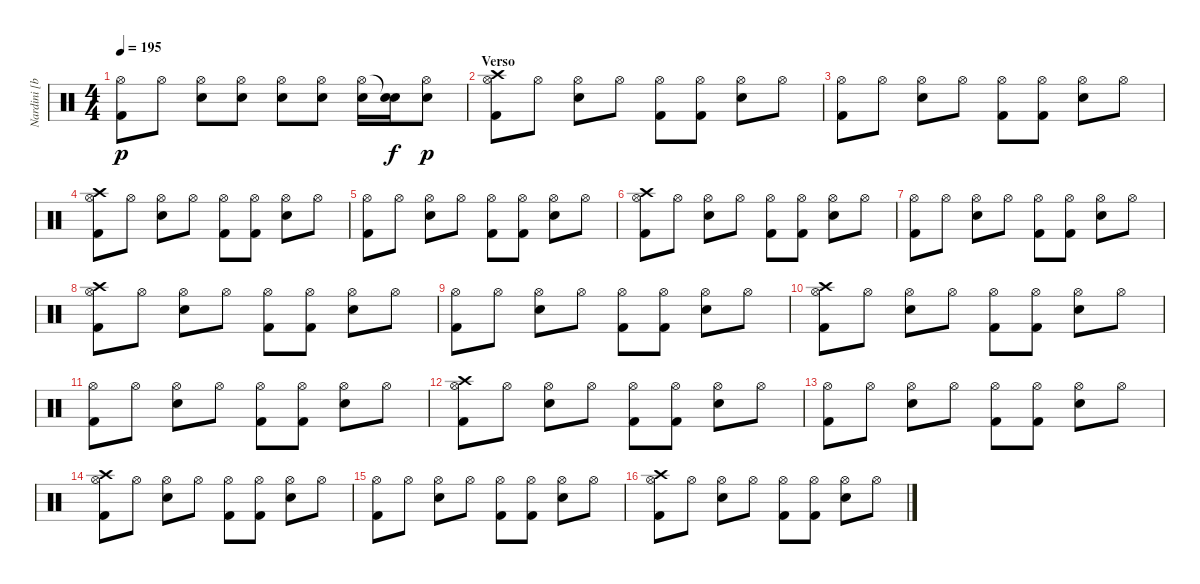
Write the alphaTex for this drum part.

\track ("Nardini [batteria]" "Nardini [b") {instrument percussion}
\staff {score}
\articulation defaults
\ts (4 4)
\tempo 195
\clef neutral
\ks c
("Hi-Hat (open)" "Kick (hit) 2").8{dy p} "Hi-Hat (open)".8 ("Hi-Hat (open)" "Electric Snare (hit)").8 ("Hi-Hat (open)" "Electric Snare (hit)").8 ("Hi-Hat (open)" "Electric Snare (hit)").8 ("Hi-Hat (open)" "Electric Snare (hit)").8 ("Hi-Hat (open)" "Electric Snare (hit)").16 ("Snare (hit)"{t} "Electric Snare (hit)").16{dy f} ("Hi-Hat (open)" "Electric Snare (hit)").8{dy p} |
\section ("" "Verso")
("Crash high (hit)" "Hi-Hat (open)" "Kick (hit) 2").8 "Hi-Hat (open)".8 ("Hi-Hat (open)" "Electric Snare (hit)").8 "Hi-Hat (open)".8 ("Hi-Hat (open)" "Kick (hit) 2").8 ("Hi-Hat (open)" "Kick (hit) 2").8 ("Hi-Hat (open)" "Electric Snare (hit)").8 "Hi-Hat (open)".8 |
("Hi-Hat (open)" "Kick (hit) 2").8 "Hi-Hat (open)".8 ("Hi-Hat (open)" "Electric Snare (hit)").8 "Hi-Hat (open)".8 ("Hi-Hat (open)" "Kick (hit) 2").8 ("Hi-Hat (open)" "Kick (hit) 2").8 ("Hi-Hat (open)" "Electric Snare (hit)").8 "Hi-Hat (open)".8 |
("Crash high (hit)" "Hi-Hat (open)" "Kick (hit) 2").8 "Hi-Hat (open)".8 ("Hi-Hat (open)" "Electric Snare (hit)").8 "Hi-Hat (open)".8 ("Hi-Hat (open)" "Kick (hit) 2").8 ("Hi-Hat (open)" "Kick (hit) 2").8 ("Hi-Hat (open)" "Electric Snare (hit)").8 "Hi-Hat (open)".8 |
("Hi-Hat (open)" "Kick (hit) 2").8 "Hi-Hat (open)".8 ("Hi-Hat (open)" "Electric Snare (hit)").8 "Hi-Hat (open)".8 ("Hi-Hat (open)" "Kick (hit) 2").8 ("Hi-Hat (open)" "Kick (hit) 2").8 ("Hi-Hat (open)" "Electric Snare (hit)").8 "Hi-Hat (open)".8 |
("Crash high (hit)" "Hi-Hat (open)" "Kick (hit) 2").8 "Hi-Hat (open)".8 ("Hi-Hat (open)" "Electric Snare (hit)").8 "Hi-Hat (open)".8 ("Hi-Hat (open)" "Kick (hit) 2").8 ("Hi-Hat (open)" "Kick (hit) 2").8 ("Hi-Hat (open)" "Electric Snare (hit)").8 "Hi-Hat (open)".8 |
("Hi-Hat (open)" "Kick (hit) 2").8 "Hi-Hat (open)".8 ("Hi-Hat (open)" "Electric Snare (hit)").8 "Hi-Hat (open)".8 ("Hi-Hat (open)" "Kick (hit) 2").8 ("Hi-Hat (open)" "Kick (hit) 2").8 ("Hi-Hat (open)" "Electric Snare (hit)").8 "Hi-Hat (open)".8 |
("Crash high (hit)" "Hi-Hat (open)" "Kick (hit) 2").8 "Hi-Hat (open)".8 ("Hi-Hat (open)" "Electric Snare (hit)").8 "Hi-Hat (open)".8 ("Hi-Hat (open)" "Kick (hit) 2").8 ("Hi-Hat (open)" "Kick (hit) 2").8 ("Hi-Hat (open)" "Electric Snare (hit)").8 "Hi-Hat (open)".8 |
("Hi-Hat (open)" "Kick (hit) 2").8 "Hi-Hat (open)".8 ("Hi-Hat (open)" "Electric Snare (hit)").8 "Hi-Hat (open)".8 ("Hi-Hat (open)" "Kick (hit) 2").8 ("Hi-Hat (open)" "Kick (hit) 2").8 ("Hi-Hat (open)" "Electric Snare (hit)").8 "Hi-Hat (open)".8 |
("Crash high (hit)" "Hi-Hat (open)" "Kick (hit) 2").8 "Hi-Hat (open)".8 ("Hi-Hat (open)" "Electric Snare (hit)").8 "Hi-Hat (open)".8 ("Hi-Hat (open)" "Kick (hit) 2").8 ("Hi-Hat (open)" "Kick (hit) 2").8 ("Hi-Hat (open)" "Electric Snare (hit)").8 "Hi-Hat (open)".8 |
("Hi-Hat (open)" "Kick (hit) 2").8 "Hi-Hat (open)".8 ("Hi-Hat (open)" "Electric Snare (hit)").8 "Hi-Hat (open)".8 ("Hi-Hat (open)" "Kick (hit) 2").8 ("Hi-Hat (open)" "Kick (hit) 2").8 ("Hi-Hat (open)" "Electric Snare (hit)").8 "Hi-Hat (open)".8 |
("Crash high (hit)" "Hi-Hat (open)" "Kick (hit) 2").8 "Hi-Hat (open)".8 ("Hi-Hat (open)" "Electric Snare (hit)").8 "Hi-Hat (open)".8 ("Hi-Hat (open)" "Kick (hit) 2").8 ("Hi-Hat (open)" "Kick (hit) 2").8 ("Hi-Hat (open)" "Electric Snare (hit)").8 "Hi-Hat (open)".8 |
("Hi-Hat (open)" "Kick (hit) 2").8 "Hi-Hat (open)".8 ("Hi-Hat (open)" "Electric Snare (hit)").8 "Hi-Hat (open)".8 ("Hi-Hat (open)" "Kick (hit) 2").8 ("Hi-Hat (open)" "Kick (hit) 2").8 ("Hi-Hat (open)" "Electric Snare (hit)").8 "Hi-Hat (open)".8 |
("Crash high (hit)" "Hi-Hat (open)" "Kick (hit) 2").8 "Hi-Hat (open)".8 ("Hi-Hat (open)" "Electric Snare (hit)").8 "Hi-Hat (open)".8 ("Hi-Hat (open)" "Kick (hit) 2").8 ("Hi-Hat (open)" "Kick (hit) 2").8 ("Hi-Hat (open)" "Electric Snare (hit)").8 "Hi-Hat (open)".8 |
("Hi-Hat (open)" "Kick (hit) 2").8 "Hi-Hat (open)".8 ("Hi-Hat (open)" "Electric Snare (hit)").8 "Hi-Hat (open)".8 ("Hi-Hat (open)" "Kick (hit) 2").8 ("Hi-Hat (open)" "Kick (hit) 2").8 ("Hi-Hat (open)" "Electric Snare (hit)").8 "Hi-Hat (open)".8 |
("Crash high (hit)" "Hi-Hat (open)" "Kick (hit) 2").8 "Hi-Hat (open)".8 ("Hi-Hat (open)" "Electric Snare (hit)").8 "Hi-Hat (open)".8 ("Hi-Hat (open)" "Kick (hit) 2").8 ("Hi-Hat (open)" "Kick (hit) 2").8 ("Hi-Hat (open)" "Electric Snare (hit)").8 "Hi-Hat (open)".8
